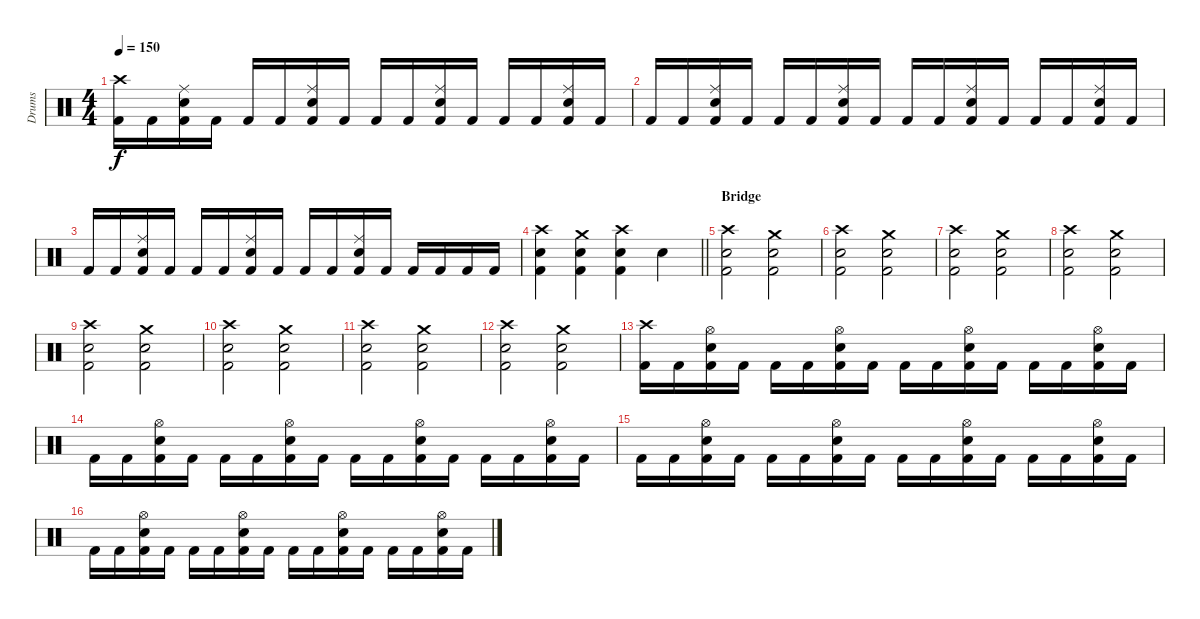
\track ("Drums" "Drums") {instrument percussion}
\staff {score}
\articulation defaults
\ts (4 4)
\tempo 150
\clef neutral
\ks c
("Crash high (hit)" "Kick (hit) 2").16{dy f} "Kick (hit) 2".16 ("Ride (middle)" "Snare (hit) 2" "Kick (hit) 2").16 "Kick (hit) 2".16 "Kick (hit) 2".16 "Kick (hit) 2".16 ("Ride (middle)" "Snare (hit) 2" "Kick (hit) 2").16 "Kick (hit) 2".16 "Kick (hit) 2".16 "Kick (hit) 2".16 ("Ride (middle)" "Snare (hit) 2" "Kick (hit) 2").16 "Kick (hit) 2".16 "Kick (hit) 2".16 "Kick (hit) 2".16 ("Ride (middle)" "Snare (hit) 2" "Kick (hit) 2").16 "Kick (hit) 2".16 |
"Kick (hit) 2".16 "Kick (hit) 2".16 ("Ride (middle)" "Snare (hit) 2" "Kick (hit) 2").16 "Kick (hit) 2".16 "Kick (hit) 2".16 "Kick (hit) 2".16 ("Ride (middle)" "Snare (hit) 2" "Kick (hit) 2").16 "Kick (hit) 2".16 "Kick (hit) 2".16 "Kick (hit) 2".16 ("Ride (middle)" "Snare (hit) 2" "Kick (hit) 2").16 "Kick (hit) 2".16 "Kick (hit) 2".16 "Kick (hit) 2".16 ("Ride (middle)" "Snare (hit) 2" "Kick (hit) 2").16 "Kick (hit) 2".16 |
"Kick (hit) 2".16 "Kick (hit) 2".16 ("Ride (middle)" "Snare (hit) 2" "Kick (hit) 2").16 "Kick (hit) 2".16 "Kick (hit) 2".16 "Kick (hit) 2".16 ("Ride (middle)" "Snare (hit) 2" "Kick (hit) 2").16 "Kick (hit) 2".16 "Kick (hit) 2".16 "Kick (hit) 2".16 ("Ride (middle)" "Snare (hit) 2" "Kick (hit) 2").16 "Kick (hit) 2".16 "Kick (hit) 2".16 "Kick (hit) 2".16 "Kick (hit) 2".16 "Kick (hit) 2".16 |
\barLineRight lightlight
("Crash high (hit)" "Snare (hit) 2" "Kick (hit) 2").4 ("Crash medium (hit)" "Snare (hit) 2" "Kick (hit) 2").4 ("Crash high (hit)" "Snare (hit) 2" "Kick (hit) 2").4 "Snare (hit) 2".4 |
\section ("" "Bridge")
("Crash high (hit)" "Snare (hit) 2" "Kick (hit) 2").2 ("Crash medium (hit)" "Snare (hit) 2" "Kick (hit) 2").2 |
("Crash high (hit)" "Snare (hit) 2" "Kick (hit) 2").2 ("Crash medium (hit)" "Snare (hit) 2" "Kick (hit) 2").2 |
("Crash high (hit)" "Snare (hit) 2" "Kick (hit) 2").2 ("Crash medium (hit)" "Snare (hit) 2" "Kick (hit) 2").2 |
("Crash high (hit)" "Snare (hit) 2" "Kick (hit) 2").2 ("Crash medium (hit)" "Snare (hit) 2" "Kick (hit) 2").2 |
("Crash high (hit)" "Snare (hit) 2" "Kick (hit) 2").2 ("Crash medium (hit)" "Snare (hit) 2" "Kick (hit) 2").2 |
("Crash high (hit)" "Snare (hit) 2" "Kick (hit) 2").2 ("Crash medium (hit)" "Snare (hit) 2" "Kick (hit) 2").2 |
("Crash high (hit)" "Snare (hit) 2" "Kick (hit) 2").2 ("Crash medium (hit)" "Snare (hit) 2" "Kick (hit) 2").2 |
("Crash high (hit)" "Snare (hit) 2" "Kick (hit) 2").2 ("Crash medium (hit)" "Snare (hit) 2" "Kick (hit) 2").2 |
("Crash high (hit)" "Kick (hit) 2").16 "Kick (hit) 2".16 ("Hi-Hat (open)" "Snare (hit) 2" "Kick (hit) 2").16 "Kick (hit) 2".16 "Kick (hit) 2".16 "Kick (hit) 2".16 ("Hi-Hat (open)" "Snare (hit) 2" "Kick (hit) 2").16 "Kick (hit) 2".16 "Kick (hit) 2".16 "Kick (hit) 2".16 ("Hi-Hat (open)" "Snare (hit) 2" "Kick (hit) 2").16 "Kick (hit) 2".16 "Kick (hit) 2".16 "Kick (hit) 2".16 ("Hi-Hat (open)" "Snare (hit) 2" "Kick (hit) 2").16 "Kick (hit) 2".16 |
"Kick (hit) 2".16 "Kick (hit) 2".16 ("Hi-Hat (open)" "Snare (hit) 2" "Kick (hit) 2").16 "Kick (hit) 2".16 "Kick (hit) 2".16 "Kick (hit) 2".16 ("Hi-Hat (open)" "Snare (hit) 2" "Kick (hit) 2").16 "Kick (hit) 2".16 "Kick (hit) 2".16 "Kick (hit) 2".16 ("Hi-Hat (open)" "Snare (hit) 2" "Kick (hit) 2").16 "Kick (hit) 2".16 "Kick (hit) 2".16 "Kick (hit) 2".16 ("Hi-Hat (open)" "Snare (hit) 2" "Kick (hit) 2").16 "Kick (hit) 2".16 |
"Kick (hit) 2".16 "Kick (hit) 2".16 ("Hi-Hat (open)" "Snare (hit) 2" "Kick (hit) 2").16 "Kick (hit) 2".16 "Kick (hit) 2".16 "Kick (hit) 2".16 ("Hi-Hat (open)" "Snare (hit) 2" "Kick (hit) 2").16 "Kick (hit) 2".16 "Kick (hit) 2".16 "Kick (hit) 2".16 ("Hi-Hat (open)" "Snare (hit) 2" "Kick (hit) 2").16 "Kick (hit) 2".16 "Kick (hit) 2".16 "Kick (hit) 2".16 ("Hi-Hat (open)" "Snare (hit) 2" "Kick (hit) 2").16 "Kick (hit) 2".16 |
"Kick (hit) 2".16 "Kick (hit) 2".16 ("Hi-Hat (open)" "Snare (hit) 2" "Kick (hit) 2").16 "Kick (hit) 2".16 "Kick (hit) 2".16 "Kick (hit) 2".16 ("Hi-Hat (open)" "Snare (hit) 2" "Kick (hit) 2").16 "Kick (hit) 2".16 "Kick (hit) 2".16 "Kick (hit) 2".16 ("Hi-Hat (open)" "Snare (hit) 2" "Kick (hit) 2").16 "Kick (hit) 2".16 "Kick (hit) 2".16 "Kick (hit) 2".16 ("Hi-Hat (open)" "Snare (hit) 2" "Kick (hit) 2").16 "Kick (hit) 2".16
